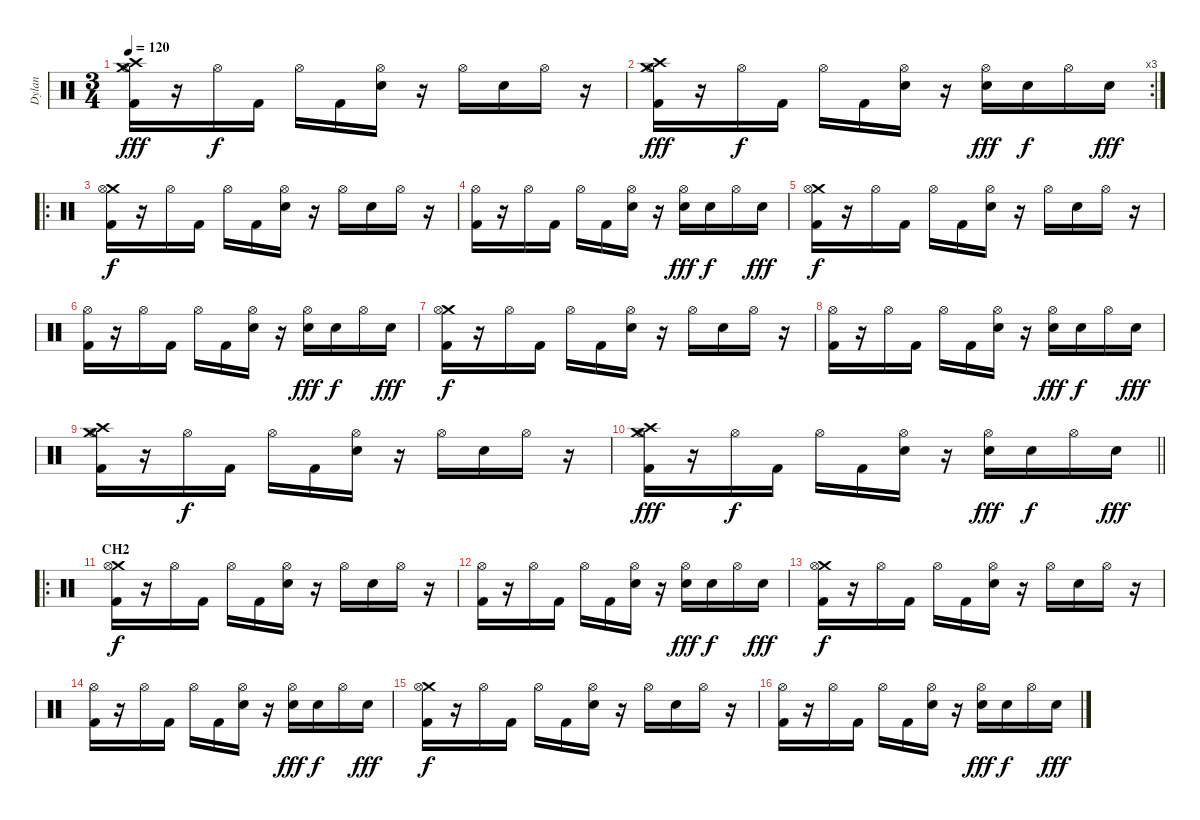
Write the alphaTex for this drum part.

\track ("Dylan" "Dylan") {instrument percussion}
\staff {score}
\articulation defaults
\ts (3 4)
\tempo 120
\clef neutral
\ks c
("Crash high (hit)" "Crash medium (hit)" "Hi-Hat (open)" "Kick (hit) 2").16{dy fff} r.16 "Hi-Hat (open)".16{dy f} "Kick (hit) 2".16 "Hi-Hat (open)".16 "Kick (hit) 2".16 ("Hi-Hat (open)" "Electric Snare (hit)").16 r.16 "Hi-Hat (open)".16 "Electric Snare (hit)".16 "Hi-Hat (open)".16 r.16 |
\rc 3
("Crash medium (hit)" "Crash high (hit)" "Hi-Hat (open)" "Kick (hit) 2").16{dy fff} r.16 "Hi-Hat (open)".16{dy f} "Kick (hit) 2".16 "Hi-Hat (open)".16 "Kick (hit) 2".16 ("Hi-Hat (open)" "Electric Snare (hit)").16 r.16 ("Hi-Hat (open)" "Electric Snare (hit)").16{dy fff} "Electric Snare (hit)".16{dy f} "Hi-Hat (open)".16 "Electric Snare (hit)".16{dy fff} |
\ro
("Crash medium (hit)" "Hi-Hat (open)" "Kick (hit) 2").16{dy f} r.16 "Hi-Hat (open)".16 "Kick (hit) 2".16 "Hi-Hat (open)".16 "Kick (hit) 2".16 ("Hi-Hat (open)" "Electric Snare (hit)").16 r.16 "Hi-Hat (open)".16 "Electric Snare (hit)".16 "Hi-Hat (open)".16 r.16 |
("Hi-Hat (open)" "Kick (hit) 2").16 r.16 "Hi-Hat (open)".16 "Kick (hit) 2".16 "Hi-Hat (open)".16 "Kick (hit) 2".16 ("Hi-Hat (open)" "Electric Snare (hit)").16 r.16 ("Hi-Hat (open)" "Electric Snare (hit)").16{dy fff} "Electric Snare (hit)".16{dy f} "Hi-Hat (open)".16 "Electric Snare (hit)".16{dy fff} |
("Crash medium (hit)" "Hi-Hat (open)" "Kick (hit) 2").16{dy f} r.16 "Hi-Hat (open)".16 "Kick (hit) 2".16 "Hi-Hat (open)".16 "Kick (hit) 2".16 ("Hi-Hat (open)" "Electric Snare (hit)").16 r.16 "Hi-Hat (open)".16 "Electric Snare (hit)".16 "Hi-Hat (open)".16 r.16 |
("Hi-Hat (open)" "Kick (hit) 2").16 r.16 "Hi-Hat (open)".16 "Kick (hit) 2".16 "Hi-Hat (open)".16 "Kick (hit) 2".16 ("Hi-Hat (open)" "Electric Snare (hit)").16 r.16 ("Hi-Hat (open)" "Electric Snare (hit)").16{dy fff} "Electric Snare (hit)".16{dy f} "Hi-Hat (open)".16 "Electric Snare (hit)".16{dy fff} |
("Crash medium (hit)" "Hi-Hat (open)" "Kick (hit) 2").16{dy f} r.16 "Hi-Hat (open)".16 "Kick (hit) 2".16 "Hi-Hat (open)".16 "Kick (hit) 2".16 ("Hi-Hat (open)" "Electric Snare (hit)").16 r.16 "Hi-Hat (open)".16 "Electric Snare (hit)".16 "Hi-Hat (open)".16 r.16 |
("Hi-Hat (open)" "Kick (hit) 2").16 r.16 "Hi-Hat (open)".16 "Kick (hit) 2".16 "Hi-Hat (open)".16 "Kick (hit) 2".16 ("Hi-Hat (open)" "Electric Snare (hit)").16 r.16 ("Hi-Hat (open)" "Electric Snare (hit)").16{dy fff} "Electric Snare (hit)".16{dy f} "Hi-Hat (open)".16 "Electric Snare (hit)".16{dy fff} |
("Crash high (hit)" "Crash medium (hit)" "Hi-Hat (open)" "Kick (hit) 2").16 r.16 "Hi-Hat (open)".16{dy f} "Kick (hit) 2".16 "Hi-Hat (open)".16 "Kick (hit) 2".16 ("Hi-Hat (open)" "Electric Snare (hit)").16 r.16 "Hi-Hat (open)".16 "Electric Snare (hit)".16 "Hi-Hat (open)".16 r.16 |
\barLineRight lightlight
("Crash medium (hit)" "Crash high (hit)" "Hi-Hat (open)" "Kick (hit) 2").16{dy fff} r.16 "Hi-Hat (open)".16{dy f} "Kick (hit) 2".16 "Hi-Hat (open)".16 "Kick (hit) 2".16 ("Hi-Hat (open)" "Electric Snare (hit)").16 r.16 ("Hi-Hat (open)" "Electric Snare (hit)").16{dy fff} "Electric Snare (hit)".16{dy f} "Hi-Hat (open)".16 "Electric Snare (hit)".16{dy fff} |
\ro
\section ("" "CH2")
("Crash medium (hit)" "Hi-Hat (open)" "Kick (hit) 2").16{dy f} r.16 "Hi-Hat (open)".16 "Kick (hit) 2".16 "Hi-Hat (open)".16 "Kick (hit) 2".16 ("Hi-Hat (open)" "Electric Snare (hit)").16 r.16 "Hi-Hat (open)".16 "Electric Snare (hit)".16 "Hi-Hat (open)".16 r.16 |
("Hi-Hat (open)" "Kick (hit) 2").16 r.16 "Hi-Hat (open)".16 "Kick (hit) 2".16 "Hi-Hat (open)".16 "Kick (hit) 2".16 ("Hi-Hat (open)" "Electric Snare (hit)").16 r.16 ("Hi-Hat (open)" "Electric Snare (hit)").16{dy fff} "Electric Snare (hit)".16{dy f} "Hi-Hat (open)".16 "Electric Snare (hit)".16{dy fff} |
("Crash medium (hit)" "Hi-Hat (open)" "Kick (hit) 2").16{dy f} r.16 "Hi-Hat (open)".16 "Kick (hit) 2".16 "Hi-Hat (open)".16 "Kick (hit) 2".16 ("Hi-Hat (open)" "Electric Snare (hit)").16 r.16 "Hi-Hat (open)".16 "Electric Snare (hit)".16 "Hi-Hat (open)".16 r.16 |
("Hi-Hat (open)" "Kick (hit) 2").16 r.16 "Hi-Hat (open)".16 "Kick (hit) 2".16 "Hi-Hat (open)".16 "Kick (hit) 2".16 ("Hi-Hat (open)" "Electric Snare (hit)").16 r.16 ("Hi-Hat (open)" "Electric Snare (hit)").16{dy fff} "Electric Snare (hit)".16{dy f} "Hi-Hat (open)".16 "Electric Snare (hit)".16{dy fff} |
("Crash medium (hit)" "Hi-Hat (open)" "Kick (hit) 2").16{dy f} r.16 "Hi-Hat (open)".16 "Kick (hit) 2".16 "Hi-Hat (open)".16 "Kick (hit) 2".16 ("Hi-Hat (open)" "Electric Snare (hit)").16 r.16 "Hi-Hat (open)".16 "Electric Snare (hit)".16 "Hi-Hat (open)".16 r.16 |
("Hi-Hat (open)" "Kick (hit) 2").16 r.16 "Hi-Hat (open)".16 "Kick (hit) 2".16 "Hi-Hat (open)".16 "Kick (hit) 2".16 ("Hi-Hat (open)" "Electric Snare (hit)").16 r.16 ("Hi-Hat (open)" "Electric Snare (hit)").16{dy fff} "Electric Snare (hit)".16{dy f} "Hi-Hat (open)".16 "Electric Snare (hit)".16{dy fff}
